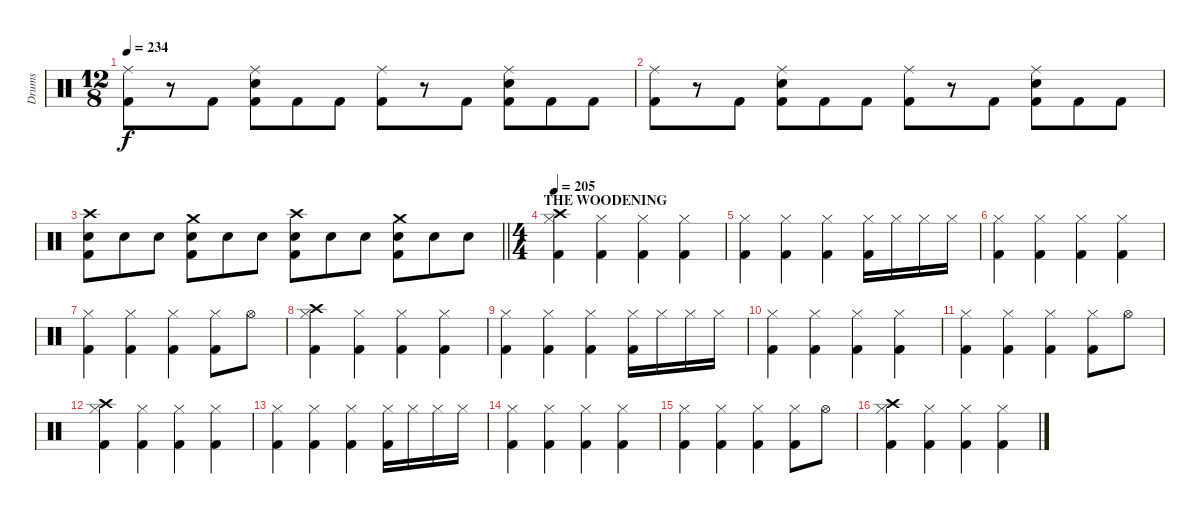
\track ("Drums" "Drums") {instrument percussion}
\staff {score}
\articulation defaults
\ts (12 8)
\tempo 234
\clef neutral
\ks c
("Ride (middle)" "Kick (hit) 2").8{dy f} r.8 "Kick (hit) 2".8 ("Ride (middle)" "Snare (hit) 2" "Kick (hit) 2").8 "Kick (hit) 2".8 "Kick (hit) 2".8 ("Ride (middle)" "Kick (hit) 2").8 r.8 "Kick (hit) 2".8 ("Ride (middle)" "Snare (hit) 2" "Kick (hit) 2").8 "Kick (hit) 2".8 "Kick (hit) 2".8 |
("Ride (middle)" "Kick (hit) 2").8 r.8 "Kick (hit) 2".8 ("Ride (middle)" "Snare (hit) 2" "Kick (hit) 2").8 "Kick (hit) 2".8 "Kick (hit) 2".8 ("Ride (middle)" "Kick (hit) 2").8 r.8 "Kick (hit) 2".8 ("Ride (middle)" "Snare (hit) 2" "Kick (hit) 2").8 "Kick (hit) 2".8 "Kick (hit) 2".8 |
\barLineRight lightlight
("Crash high (hit)" "Snare (hit) 2" "Kick (hit) 2").8 "Snare (hit) 2".8 "Snare (hit) 2".8 ("Crash medium (hit)" "Snare (hit) 2" "Kick (hit) 2").8 "Snare (hit) 2".8 "Snare (hit) 2".8 ("Crash high (hit)" "Snare (hit) 2" "Kick (hit) 2").8 "Snare (hit) 2".8 "Snare (hit) 2".8 ("Crash medium (hit)" "Snare (hit) 2" "Kick (hit) 2").8 "Snare (hit) 2".8 "Snare (hit) 2".8 |
\ts (4 4)
\section ("" "THE WOODENING")
\tempo 205
("Crash high (hit)" "Hi-Hat (closed)" "Kick (hit) 2").4 ("Hi-Hat (closed)" "Kick (hit) 2").4 ("Hi-Hat (closed)" "Kick (hit) 2").4 ("Hi-Hat (closed)" "Kick (hit) 2").4 |
("Hi-Hat (closed)" "Kick (hit) 2").4 ("Hi-Hat (closed)" "Kick (hit) 2").4 ("Hi-Hat (closed)" "Kick (hit) 2").4 ("Hi-Hat (closed)" "Kick (hit) 2").16 "Hi-Hat (closed)".16 "Hi-Hat (closed)".16 "Hi-Hat (closed)".16 |
("Hi-Hat (closed)" "Kick (hit) 2").4 ("Hi-Hat (closed)" "Kick (hit) 2").4 ("Hi-Hat (closed)" "Kick (hit) 2").4 ("Hi-Hat (closed)" "Kick (hit) 2").4 |
("Hi-Hat (closed)" "Kick (hit) 2").4 ("Hi-Hat (closed)" "Kick (hit) 2").4 ("Hi-Hat (closed)" "Kick (hit) 2").4 ("Hi-Hat (closed)" "Kick (hit) 2").8 "Hi-Hat (open)".8 |
("Crash high (hit)" "Hi-Hat (closed)" "Kick (hit) 2").4 ("Hi-Hat (closed)" "Kick (hit) 2").4 ("Hi-Hat (closed)" "Kick (hit) 2").4 ("Hi-Hat (closed)" "Kick (hit) 2").4 |
("Hi-Hat (closed)" "Kick (hit) 2").4 ("Hi-Hat (closed)" "Kick (hit) 2").4 ("Hi-Hat (closed)" "Kick (hit) 2").4 ("Hi-Hat (closed)" "Kick (hit) 2").16 "Hi-Hat (closed)".16 "Hi-Hat (closed)".16 "Hi-Hat (closed)".16 |
("Hi-Hat (closed)" "Kick (hit) 2").4 ("Hi-Hat (closed)" "Kick (hit) 2").4 ("Hi-Hat (closed)" "Kick (hit) 2").4 ("Hi-Hat (closed)" "Kick (hit) 2").4 |
("Hi-Hat (closed)" "Kick (hit) 2").4 ("Hi-Hat (closed)" "Kick (hit) 2").4 ("Hi-Hat (closed)" "Kick (hit) 2").4 ("Hi-Hat (closed)" "Kick (hit) 2").8 "Hi-Hat (open)".8 |
("Crash high (hit)" "Hi-Hat (closed)" "Kick (hit) 2").4 ("Hi-Hat (closed)" "Kick (hit) 2").4 ("Hi-Hat (closed)" "Kick (hit) 2").4 ("Hi-Hat (closed)" "Kick (hit) 2").4 |
("Hi-Hat (closed)" "Kick (hit) 2").4 ("Hi-Hat (closed)" "Kick (hit) 2").4 ("Hi-Hat (closed)" "Kick (hit) 2").4 ("Hi-Hat (closed)" "Kick (hit) 2").16 "Hi-Hat (closed)".16 "Hi-Hat (closed)".16 "Hi-Hat (closed)".16 |
("Hi-Hat (closed)" "Kick (hit) 2").4 ("Hi-Hat (closed)" "Kick (hit) 2").4 ("Hi-Hat (closed)" "Kick (hit) 2").4 ("Hi-Hat (closed)" "Kick (hit) 2").4 |
("Hi-Hat (closed)" "Kick (hit) 2").4 ("Hi-Hat (closed)" "Kick (hit) 2").4 ("Hi-Hat (closed)" "Kick (hit) 2").4 ("Hi-Hat (closed)" "Kick (hit) 2").8 "Hi-Hat (open)".8 |
("Crash high (hit)" "Hi-Hat (closed)" "Kick (hit) 2").4 ("Hi-Hat (closed)" "Kick (hit) 2").4 ("Hi-Hat (closed)" "Kick (hit) 2").4 ("Hi-Hat (closed)" "Kick (hit) 2").4
